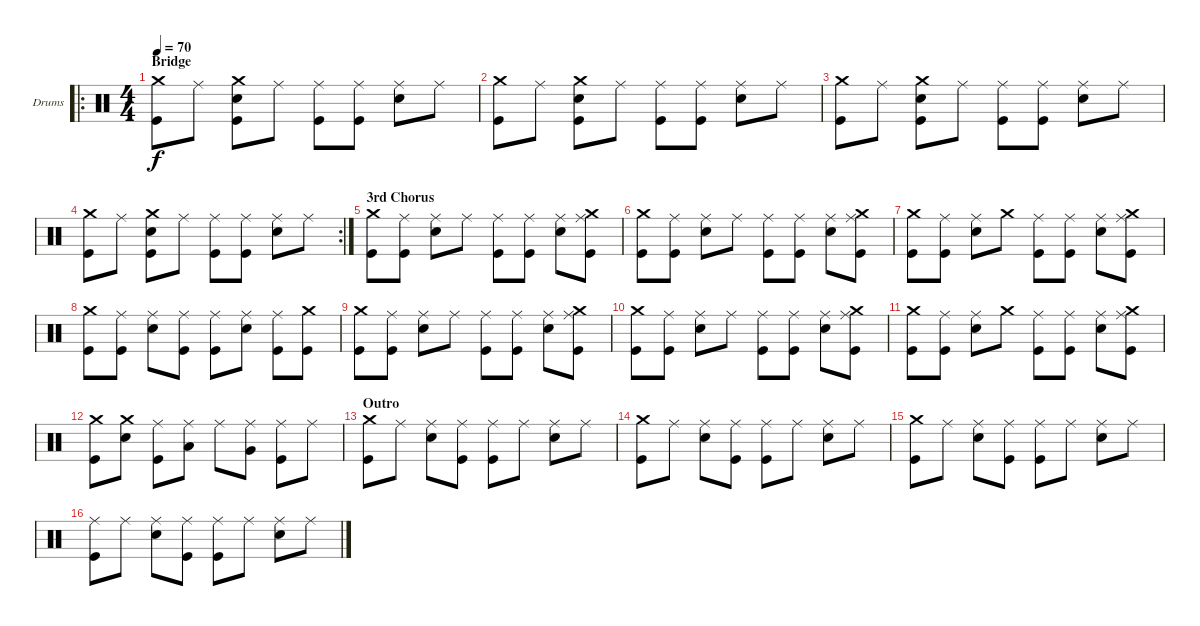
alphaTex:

\bracketExtendMode groupsimilarinstruments
\firstSystemTrackNameOrientation horizontal
\otherSystemsTrackNameOrientation horizontal
\track ("Drumkit" "Drums") {instrument percussion}
\staff {score}
\articulation defaults
\ro
\ts (4 4)
\section ("" "Bridge")
\tempo 70
\clef neutral
\scale
0.377049
\ks c
("Crash medium (hit)" "Kick (hit)").8{dy f} "Ride (middle)".8 ("Crash medium (hit)" "Snare (hit) 2" "Kick (hit)").8 "Ride (middle)".8 ("Ride (middle)" "Kick (hit)").8 ("Ride (middle)" "Kick (hit)").8 ("Ride (middle)" "Snare (hit) 2").8 "Ride (middle)".8 |
\scale
0.311475 ("Crash medium (hit)" "Kick (hit)").8 "Ride (middle)".8 ("Crash medium (hit)" "Snare (hit) 2" "Kick (hit)").8 "Ride (middle)".8 ("Ride (middle)" "Kick (hit)").8 ("Ride (middle)" "Kick (hit)").8 ("Ride (middle)" "Snare (hit) 2").8 "Ride (middle)".8 |
\scale
0.311475 ("Crash medium (hit)" "Kick (hit)").8 "Ride (middle)".8 ("Crash medium (hit)" "Snare (hit) 2" "Kick (hit)").8 "Ride (middle)".8 ("Ride (middle)" "Kick (hit)").8 ("Ride (middle)" "Kick (hit)").8 ("Ride (middle)" "Snare (hit) 2").8 "Ride (middle)".8 |
\rc 2
\scale
0.355932 ("Crash medium (hit)" "Kick (hit)").8 "Ride (middle)".8 ("Crash medium (hit)" "Snare (hit) 2" "Kick (hit)").8 "Ride (middle)".8 ("Ride (middle)" "Kick (hit)").8 ("Ride (middle)" "Kick (hit)").8 ("Ride (middle)" "Snare (hit) 2").8 "Ride (middle)".8 |
\section ("" "3rd Chorus")
\scale
0.322034 ("Crash medium (hit)" "Kick (hit)").8 ("Ride (middle)" "Kick (hit)").8 ("Ride (middle)" "Snare (hit) 2").8 "Ride (middle)".8 ("Ride (middle)" "Kick (hit)").8 ("Ride (middle)" "Kick (hit)").8 ("Ride (middle)" "Snare (hit) 2").8 ("Crash medium (hit)" "Ride (middle)" "Kick (hit)").8 |
\scale
0.322034 ("Crash medium (hit)" "Kick (hit)").8 ("Ride (middle)" "Kick (hit)").8 ("Ride (middle)" "Snare (hit) 2").8 "Ride (middle)".8 ("Ride (middle)" "Kick (hit)").8 ("Ride (middle)" "Kick (hit)").8 ("Ride (middle)" "Snare (hit) 2").8 ("Crash medium (hit)" "Ride (middle)" "Kick (hit)").8 |
\scale
0.333333 ("Crash medium (hit)" "Kick (hit)").8 ("Ride (middle)" "Kick (hit)").8 ("Ride (middle)" "Snare (hit) 2").8 "Crash medium (hit)".8 ("Ride (middle)" "Kick (hit)").8 ("Ride (middle)" "Kick (hit)").8 ("Ride (middle)" "Snare (hit) 2").8 ("Crash medium (hit)" "Ride (middle)" "Kick (hit)").8 |
\scale
0.333333 ("Crash medium (hit)" "Kick (hit)").8 ("Ride (middle)" "Kick (hit)").8 ("Ride (middle)" "Snare (hit) 2").8 ("Ride (middle)" "Kick (hit)").8 ("Ride (middle)" "Kick (hit)").8 ("Ride (middle)" "Snare (hit) 2").8 ("Ride (middle)" "Kick (hit)").8 ("Crash medium (hit)" "Kick (hit)").8 |
\scale
0.333333 ("Crash medium (hit)" "Kick (hit)").8 ("Ride (middle)" "Kick (hit)").8 ("Ride (middle)" "Snare (hit) 2").8 "Ride (middle)".8 ("Ride (middle)" "Kick (hit)").8 ("Ride (middle)" "Kick (hit)").8 ("Ride (middle)" "Snare (hit) 2").8 ("Crash medium (hit)" "Ride (middle)" "Kick (hit)").8 |
\scale
0.333333 ("Crash medium (hit)" "Kick (hit)").8 ("Ride (middle)" "Kick (hit)").8 ("Ride (middle)" "Snare (hit) 2").8 "Ride (middle)".8 ("Ride (middle)" "Kick (hit)").8 ("Ride (middle)" "Kick (hit)").8 ("Ride (middle)" "Snare (hit) 2").8 ("Crash medium (hit)" "Ride (middle)" "Kick (hit)").8 |
\scale
0.333333 ("Crash medium (hit)" "Kick (hit)").8 ("Ride (middle)" "Kick (hit)").8 ("Ride (middle)" "Snare (hit) 2").8 "Crash medium (hit)".8 ("Ride (middle)" "Kick (hit)").8 ("Ride (middle)" "Kick (hit)").8 ("Ride (middle)" "Snare (hit) 2").8 ("Crash medium (hit)" "Ride (middle)" "Kick (hit)").8 |
\scale
0.333333 ("Crash medium (hit)" "Kick (hit)").8 ("Crash medium (hit)" "Snare (hit) 2").8 ("Ride (middle)" "Kick (hit)").8 ("Low Tom (hit)" "Ride (middle)").8 "Ride (middle)".8 ("Very Low Tom (hit)" "Ride (middle)").8 ("Ride (middle)" "Kick (hit)").8 "Ride (middle)".8 |
\section ("" "Outro")
\scale
0.333333 ("Crash medium (hit)" "Kick (hit)").8 "Ride (middle)".8 ("Ride (middle)" "Snare (hit) 2").8 ("Ride (middle)" "Kick (hit)").8 ("Ride (middle)" "Kick (hit)").8 "Ride (middle)".8 ("Ride (middle)" "Snare (hit) 2").8 "Ride (middle)".8 |
\scale
0.333333 ("Crash medium (hit)" "Kick (hit)").8 "Ride (middle)".8 ("Ride (middle)" "Snare (hit) 2").8 ("Ride (middle)" "Kick (hit)").8 ("Ride (middle)" "Kick (hit)").8 "Ride (middle)".8 ("Ride (middle)" "Snare (hit) 2").8 "Ride (middle)".8 |
\scale
0.333333 ("Crash medium (hit)" "Kick (hit)").8 "Ride (middle)".8 ("Ride (middle)" "Snare (hit) 2").8 ("Ride (middle)" "Kick (hit)").8 ("Ride (middle)" "Kick (hit)").8 "Ride (middle)".8 ("Ride (middle)" "Snare (hit) 2").8 "Ride (middle)".8 |
\scale
0.333333 ("Kick (hit)" "Ride (middle)").8 "Ride (middle)".8 ("Ride (middle)" "Snare (hit) 2").8 ("Ride (middle)" "Kick (hit)").8 ("Ride (middle)" "Kick (hit)").8 "Ride (middle)".8 ("Ride (middle)" "Snare (hit) 2").8 "Ride (middle)".8
